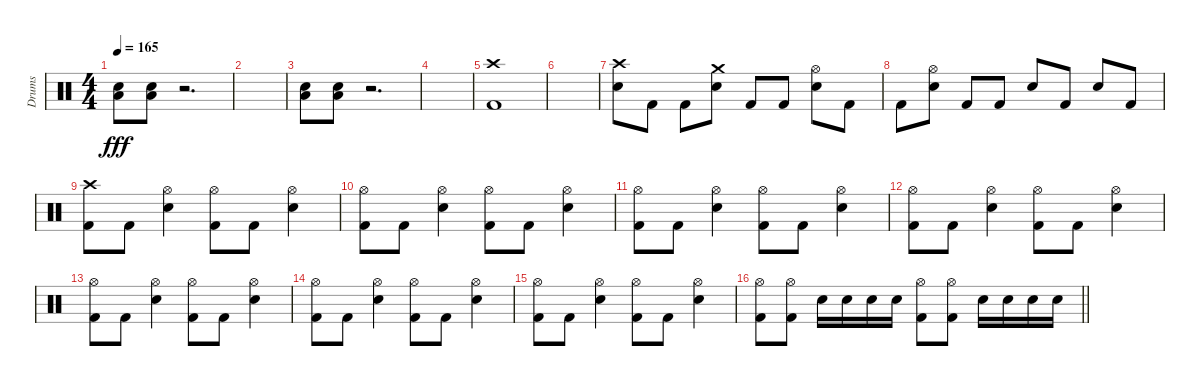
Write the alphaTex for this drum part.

\track ("Drums" "Drums") {instrument percussion}
\staff {score}
\articulation defaults
\ts (4 4)
\tempo 165
\clef neutral
\ks c
("Snare (hit) 2" "Low Floor Tom (hit)").8{dy fff} ("Snare (hit) 2" "Low Floor Tom (hit)").8 r.2{d} |
|
("Snare (hit) 2" "Low Floor Tom (hit)").8 ("Snare (hit) 2" "Low Floor Tom (hit)").8 r.2{d} |
|
("Crash high (hit)" "Kick (hit) 2").1 |
|
("Crash high (hit)" "Snare (hit) 2").8 "Kick (hit) 2".8 "Kick (hit) 2".8 ("Crash medium (hit)" "Snare (hit) 2").8 "Kick (hit) 2".8 "Kick (hit) 2".8 ("Hi-Hat (open)" "Snare (hit) 2").8 "Kick (hit) 2".8 |
"Kick (hit) 2".8 ("Hi-Hat (open)" "Snare (hit) 2").8 "Kick (hit) 2".8 "Kick (hit) 2".8 "Snare (hit) 2".8 "Kick (hit) 2".8 "Snare (hit) 2".8 "Kick (hit) 2".8 |
("Crash high (hit)" "Kick (hit) 2").8 "Kick (hit) 2".8 ("Hi-Hat (open)" "Snare (hit) 2").4 ("Hi-Hat (open)" "Kick (hit) 2").8 "Kick (hit) 2".8 ("Hi-Hat (open)" "Snare (hit) 2").4 |
("Hi-Hat (open)" "Kick (hit) 2").8 "Kick (hit) 2".8 ("Hi-Hat (open)" "Snare (hit) 2").4 ("Hi-Hat (open)" "Kick (hit) 2").8 "Kick (hit) 2".8 ("Hi-Hat (open)" "Snare (hit) 2").4 |
("Hi-Hat (open)" "Kick (hit) 2").8 "Kick (hit) 2".8 ("Hi-Hat (open)" "Snare (hit) 2").4 ("Hi-Hat (open)" "Kick (hit) 2").8 "Kick (hit) 2".8 ("Hi-Hat (open)" "Snare (hit) 2").4 |
("Hi-Hat (open)" "Kick (hit) 2").8 "Kick (hit) 2".8 ("Hi-Hat (open)" "Snare (hit) 2").4 ("Hi-Hat (open)" "Kick (hit) 2").8 "Kick (hit) 2".8 ("Hi-Hat (open)" "Snare (hit) 2").4 |
("Hi-Hat (open)" "Kick (hit) 2").8 "Kick (hit) 2".8 ("Hi-Hat (open)" "Snare (hit) 2").4 ("Hi-Hat (open)" "Kick (hit) 2").8 "Kick (hit) 2".8 ("Hi-Hat (open)" "Snare (hit) 2").4 |
("Hi-Hat (open)" "Kick (hit) 2").8 "Kick (hit) 2".8 ("Hi-Hat (open)" "Snare (hit) 2").4 ("Hi-Hat (open)" "Kick (hit) 2").8 "Kick (hit) 2".8 ("Hi-Hat (open)" "Snare (hit) 2").4 |
("Hi-Hat (open)" "Kick (hit) 2").8 "Kick (hit) 2".8 ("Hi-Hat (open)" "Snare (hit) 2").4 ("Hi-Hat (open)" "Kick (hit) 2").8 "Kick (hit) 2".8 ("Hi-Hat (open)" "Snare (hit) 2").4 |
\barLineRight lightlight
("Hi-Hat (open)" "Kick (hit) 2").8 ("Hi-Hat (open)" "Kick (hit) 2").8 "Snare (hit) 2".16 "Snare (hit) 2".16 "Snare (hit) 2".16 "Snare (hit) 2".16 ("Hi-Hat (open)" "Kick (hit) 2").8 ("Hi-Hat (open)" "Kick (hit) 2").8 "Snare (hit) 2".16 "Snare (hit) 2".16 "Snare (hit) 2".16 "Snare (hit) 2".16
